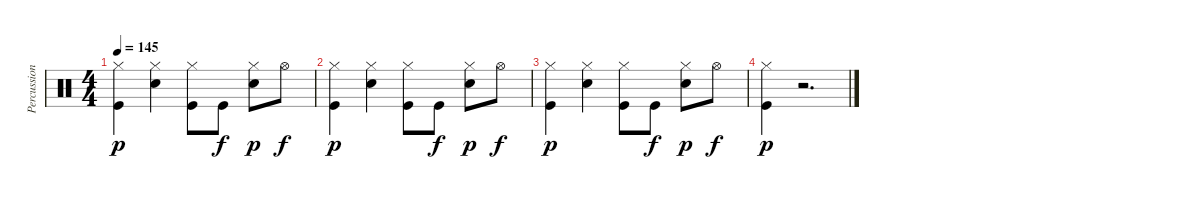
\track ("Percussion" "Percussion") {instrument percussion}
\staff {score}
\articulation defaults
\ts (4 4)
\tempo 145
\clef neutral
\ks c
("Hi-Hat (closed)" "Kick (hit)").4{dy p} ("Hi-Hat (closed)" "Snare (hit) 2").4 ("Hi-Hat (closed)" "Kick (hit)").8 "Kick (hit)".8{dy f} ("Hi-Hat (closed)" "Snare (hit) 2").8{dy p} "Hi-Hat (open)".8{dy f} |
("Hi-Hat (closed)" "Kick (hit)").4{dy p} ("Hi-Hat (closed)" "Snare (hit) 2").4 ("Hi-Hat (closed)" "Kick (hit)").8 "Kick (hit)".8{dy f} ("Hi-Hat (closed)" "Snare (hit) 2").8{dy p} "Hi-Hat (open)".8{dy f} |
("Hi-Hat (closed)" "Kick (hit)").4{dy p} ("Hi-Hat (closed)" "Snare (hit) 2").4 ("Hi-Hat (closed)" "Kick (hit)").8 "Kick (hit)".8{dy f} ("Hi-Hat (closed)" "Snare (hit) 2").8{dy p} "Hi-Hat (open)".8{dy f} |
("Hi-Hat (closed)" "Kick (hit)").4{dy p} r.2{d}
